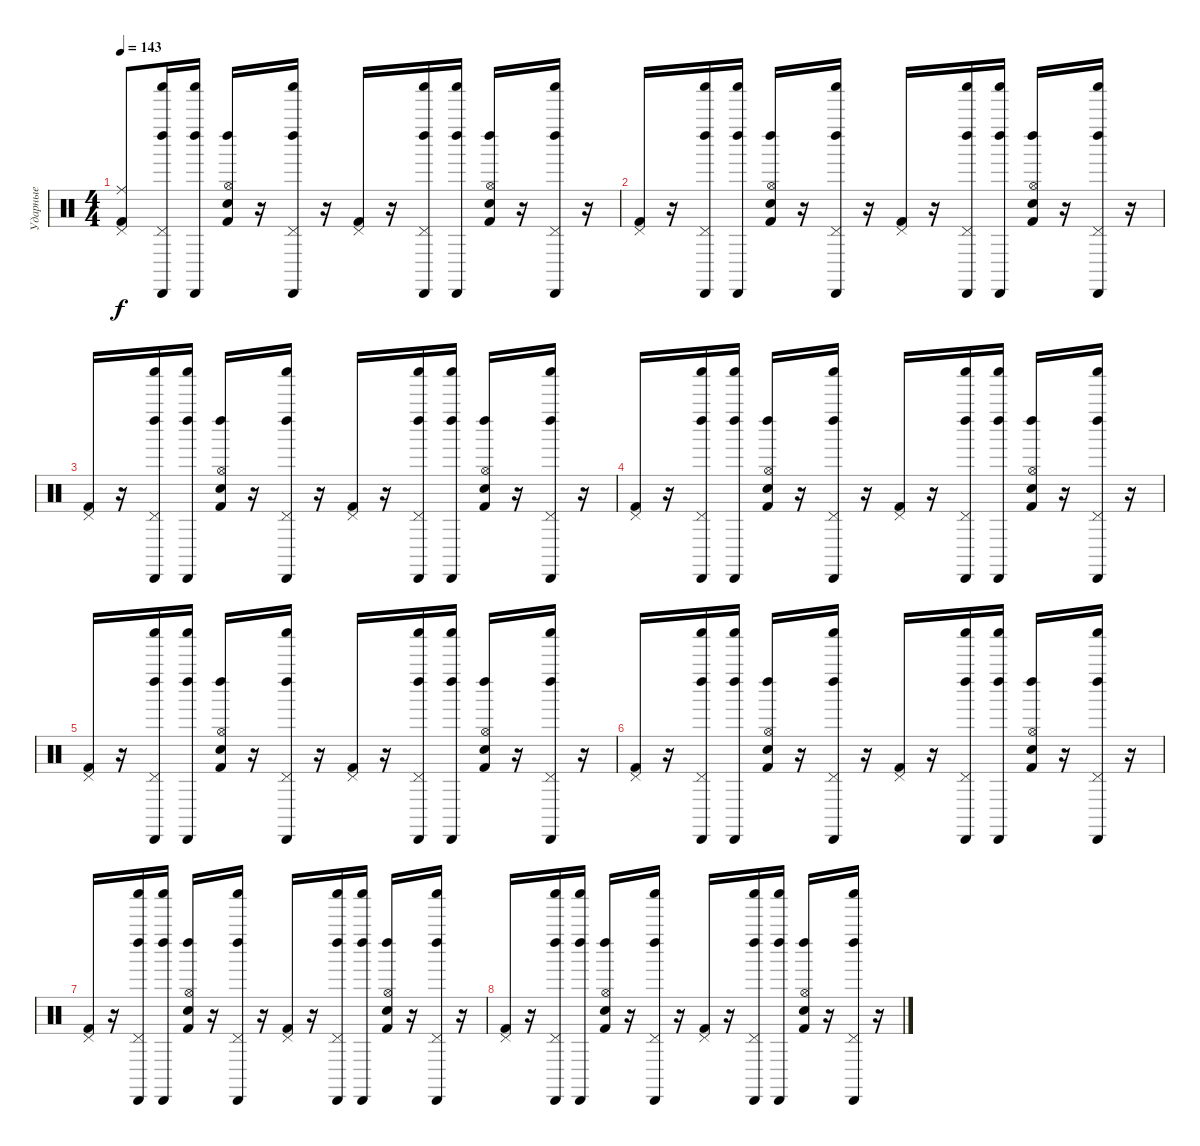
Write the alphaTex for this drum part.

\track ("Ударные" "Ударные") {instrument percussion}
\staff {score}
\articulation defaults
\ts (4 4)
\tempo 143
\clef neutral
\ks c
("Ride (middle)" "Kick (hit) 2" "Pedal Hi-Hat (hit)").8{dy f} ("Pedal Hi-Hat (hit)" "Left Maraca (hit)" "Shaker (hit)" "Cabasa (hit)").16 ("Left Maraca (hit)" "Shaker (hit)" "Cabasa (hit)").16 ("Snare (hit) 2" "Kick (hit) 2" "Hi-Hat (open)" "Left Maraca (hit)").16 r.16 ("Pedal Hi-Hat (hit)" "Left Maraca (hit)" "Shaker (hit)" "Cabasa (hit)").16 r.16 ("Kick (hit) 2" "Pedal Hi-Hat (hit)").16 r.16 ("Pedal Hi-Hat (hit)" "Left Maraca (hit)" "Shaker (hit)" "Cabasa (hit)").16 ("Left Maraca (hit)" "Shaker (hit)" "Cabasa (hit)").16 ("Snare (hit) 2" "Kick (hit) 2" "Hi-Hat (open)" "Left Maraca (hit)").16 r.16 ("Pedal Hi-Hat (hit)" "Left Maraca (hit)" "Shaker (hit)" "Cabasa (hit)").16 r.16 |
("Kick (hit) 2" "Pedal Hi-Hat (hit)").16 r.16 ("Pedal Hi-Hat (hit)" "Left Maraca (hit)" "Shaker (hit)" "Cabasa (hit)").16 ("Left Maraca (hit)" "Shaker (hit)" "Cabasa (hit)").16 ("Kick (hit) 2" "Snare (hit) 2" "Hi-Hat (open)" "Left Maraca (hit)").16 r.16 ("Pedal Hi-Hat (hit)" "Left Maraca (hit)" "Shaker (hit)" "Cabasa (hit)").16 r.16 ("Kick (hit) 2" "Pedal Hi-Hat (hit)").16 r.16 ("Pedal Hi-Hat (hit)" "Left Maraca (hit)" "Shaker (hit)" "Cabasa (hit)").16 ("Left Maraca (hit)" "Shaker (hit)" "Cabasa (hit)").16 ("Kick (hit) 2" "Snare (hit) 2" "Hi-Hat (open)" "Left Maraca (hit)").16 r.16 ("Pedal Hi-Hat (hit)" "Left Maraca (hit)" "Shaker (hit)" "Cabasa (hit)").16 r.16 |
("Kick (hit) 2" "Pedal Hi-Hat (hit)").16 r.16 ("Pedal Hi-Hat (hit)" "Left Maraca (hit)" "Shaker (hit)" "Cabasa (hit)").16 ("Left Maraca (hit)" "Shaker (hit)" "Cabasa (hit)").16 ("Kick (hit) 2" "Snare (hit) 2" "Hi-Hat (open)" "Left Maraca (hit)").16 r.16 ("Pedal Hi-Hat (hit)" "Left Maraca (hit)" "Shaker (hit)" "Cabasa (hit)").16 r.16 ("Kick (hit) 2" "Pedal Hi-Hat (hit)").16 r.16 ("Pedal Hi-Hat (hit)" "Left Maraca (hit)" "Shaker (hit)" "Cabasa (hit)").16 ("Left Maraca (hit)" "Shaker (hit)" "Cabasa (hit)").16 ("Snare (hit) 2" "Kick (hit) 2" "Hi-Hat (open)" "Left Maraca (hit)").16 r.16 ("Pedal Hi-Hat (hit)" "Left Maraca (hit)" "Shaker (hit)" "Cabasa (hit)").16 r.16 |
("Kick (hit) 2" "Pedal Hi-Hat (hit)").16 r.16 ("Pedal Hi-Hat (hit)" "Left Maraca (hit)" "Shaker (hit)" "Cabasa (hit)").16 ("Left Maraca (hit)" "Shaker (hit)" "Cabasa (hit)").16 ("Kick (hit) 2" "Snare (hit) 2" "Hi-Hat (open)" "Left Maraca (hit)").16 r.16 ("Pedal Hi-Hat (hit)" "Left Maraca (hit)" "Shaker (hit)" "Cabasa (hit)").16 r.16 ("Kick (hit) 2" "Pedal Hi-Hat (hit)").16 r.16 ("Pedal Hi-Hat (hit)" "Left Maraca (hit)" "Shaker (hit)" "Cabasa (hit)").16 ("Left Maraca (hit)" "Shaker (hit)" "Cabasa (hit)").16 ("Snare (hit) 2" "Kick (hit) 2" "Hi-Hat (open)" "Left Maraca (hit)").16 r.16 ("Pedal Hi-Hat (hit)" "Left Maraca (hit)" "Shaker (hit)" "Cabasa (hit)").16 r.16 |
("Kick (hit) 2" "Pedal Hi-Hat (hit)").16 r.16 ("Pedal Hi-Hat (hit)" "Left Maraca (hit)" "Shaker (hit)" "Cabasa (hit)").16 ("Left Maraca (hit)" "Shaker (hit)" "Cabasa (hit)").16 ("Kick (hit) 2" "Snare (hit) 2" "Hi-Hat (open)" "Left Maraca (hit)").16 r.16 ("Pedal Hi-Hat (hit)" "Left Maraca (hit)" "Shaker (hit)" "Cabasa (hit)").16 r.16 ("Kick (hit) 2" "Pedal Hi-Hat (hit)").16 r.16 ("Pedal Hi-Hat (hit)" "Left Maraca (hit)" "Shaker (hit)" "Cabasa (hit)").16 ("Left Maraca (hit)" "Shaker (hit)" "Cabasa (hit)").16 ("Kick (hit) 2" "Snare (hit) 2" "Hi-Hat (open)" "Left Maraca (hit)").16 r.16 ("Pedal Hi-Hat (hit)" "Left Maraca (hit)" "Shaker (hit)" "Cabasa (hit)").16 r.16 |
("Kick (hit) 2" "Pedal Hi-Hat (hit)").16 r.16 ("Pedal Hi-Hat (hit)" "Left Maraca (hit)" "Shaker (hit)" "Cabasa (hit)").16 ("Left Maraca (hit)" "Shaker (hit)" "Cabasa (hit)").16 ("Kick (hit) 2" "Snare (hit) 2" "Hi-Hat (open)" "Left Maraca (hit)").16 r.16 ("Pedal Hi-Hat (hit)" "Left Maraca (hit)" "Shaker (hit)" "Cabasa (hit)").16 r.16 ("Kick (hit) 2" "Pedal Hi-Hat (hit)").16 r.16 ("Pedal Hi-Hat (hit)" "Left Maraca (hit)" "Shaker (hit)" "Cabasa (hit)").16 ("Left Maraca (hit)" "Shaker (hit)" "Cabasa (hit)").16 ("Snare (hit) 2" "Kick (hit) 2" "Hi-Hat (open)" "Left Maraca (hit)").16 r.16 ("Pedal Hi-Hat (hit)" "Left Maraca (hit)" "Shaker (hit)" "Cabasa (hit)").16 r.16 |
("Kick (hit) 2" "Pedal Hi-Hat (hit)").16 r.16 ("Pedal Hi-Hat (hit)" "Left Maraca (hit)" "Shaker (hit)" "Cabasa (hit)").16 ("Left Maraca (hit)" "Shaker (hit)" "Cabasa (hit)").16 ("Snare (hit) 2" "Kick (hit) 2" "Hi-Hat (open)" "Left Maraca (hit)").16 r.16 ("Pedal Hi-Hat (hit)" "Left Maraca (hit)" "Shaker (hit)" "Cabasa (hit)").16 r.16 ("Kick (hit) 2" "Pedal Hi-Hat (hit)").16 r.16 ("Pedal Hi-Hat (hit)" "Left Maraca (hit)" "Shaker (hit)" "Cabasa (hit)").16 ("Left Maraca (hit)" "Shaker (hit)" "Cabasa (hit)").16 ("Snare (hit) 2" "Kick (hit) 2" "Hi-Hat (open)" "Left Maraca (hit)").16 r.16 ("Pedal Hi-Hat (hit)" "Left Maraca (hit)" "Shaker (hit)" "Cabasa (hit)").16 r.16 |
("Kick (hit) 2" "Pedal Hi-Hat (hit)").16 r.16 ("Pedal Hi-Hat (hit)" "Left Maraca (hit)" "Shaker (hit)" "Cabasa (hit)").16 ("Left Maraca (hit)" "Shaker (hit)" "Cabasa (hit)").16 ("Snare (hit) 2" "Kick (hit) 2" "Hi-Hat (open)" "Left Maraca (hit)").16 r.16 ("Pedal Hi-Hat (hit)" "Left Maraca (hit)" "Shaker (hit)" "Cabasa (hit)").16 r.16 ("Kick (hit) 2" "Pedal Hi-Hat (hit)").16 r.16 ("Pedal Hi-Hat (hit)" "Left Maraca (hit)" "Shaker (hit)" "Cabasa (hit)").16 ("Left Maraca (hit)" "Shaker (hit)" "Cabasa (hit)").16 ("Snare (hit) 2" "Kick (hit) 2" "Hi-Hat (open)" "Left Maraca (hit)").16 r.16 ("Pedal Hi-Hat (hit)" "Left Maraca (hit)" "Shaker (hit)" "Cabasa (hit)").16 r.16
